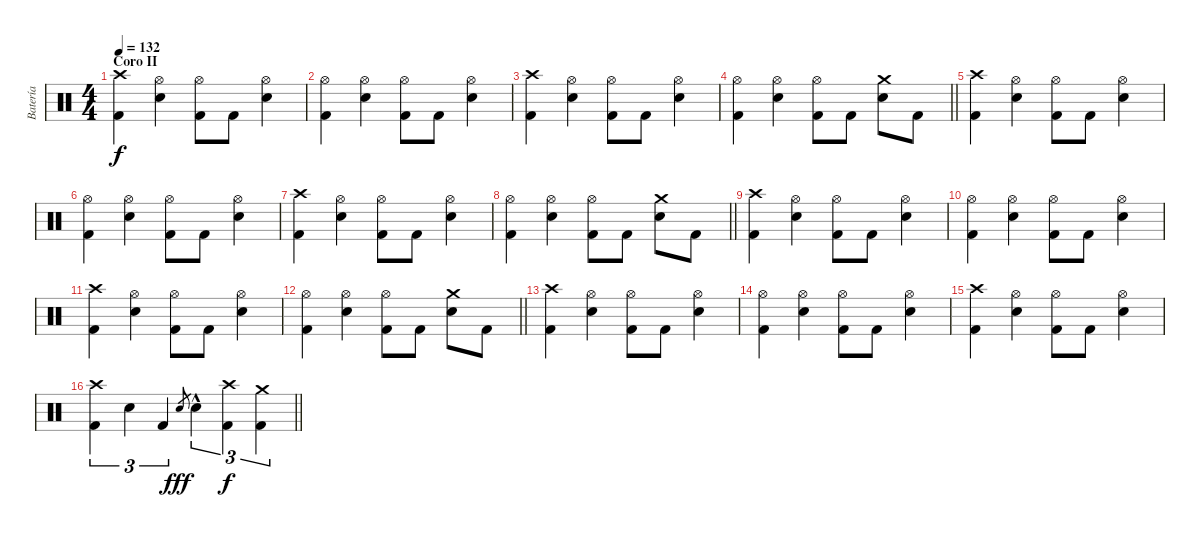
\track ("Batería" "Batería") {instrument percussion}
\staff {score}
\articulation defaults
\ts (4 4)
\section ("" "Coro II")
\tempo 132
\clef neutral
\ks c
("Crash high (hit)" "Kick (hit) 2").4{dy f} ("Hi-Hat (open)" "Electric Snare (hit)").4 ("Kick (hit) 2" "Hi-Hat (open)").8 "Kick (hit) 2".8 ("Hi-Hat (open)" "Electric Snare (hit)").4 |
("Hi-Hat (open)" "Kick (hit) 2").4 ("Hi-Hat (open)" "Electric Snare (hit)").4 ("Kick (hit) 2" "Hi-Hat (open)").8 "Kick (hit) 2".8 ("Hi-Hat (open)" "Electric Snare (hit)").4 |
("Crash high (hit)" "Kick (hit) 2").4 ("Hi-Hat (open)" "Electric Snare (hit)").4 ("Kick (hit) 2" "Hi-Hat (open)").8 "Kick (hit) 2".8 ("Hi-Hat (open)" "Electric Snare (hit)").4 |
\barLineRight lightlight
("Hi-Hat (open)" "Kick (hit) 2").4 ("Hi-Hat (open)" "Electric Snare (hit)").4 ("Kick (hit) 2" "Hi-Hat (open)").8 "Kick (hit) 2".8 ("Crash medium (hit)" "Electric Snare (hit)").8 "Kick (hit) 2".8 |
("Crash high (hit)" "Kick (hit) 2").4 ("Hi-Hat (open)" "Electric Snare (hit)").4 ("Kick (hit) 2" "Hi-Hat (open)").8 "Kick (hit) 2".8 ("Hi-Hat (open)" "Electric Snare (hit)").4 |
("Hi-Hat (open)" "Kick (hit) 2").4 ("Hi-Hat (open)" "Electric Snare (hit)").4 ("Kick (hit) 2" "Hi-Hat (open)").8 "Kick (hit) 2".8 ("Hi-Hat (open)" "Electric Snare (hit)").4 |
("Crash high (hit)" "Kick (hit) 2").4 ("Hi-Hat (open)" "Electric Snare (hit)").4 ("Kick (hit) 2" "Hi-Hat (open)").8 "Kick (hit) 2".8 ("Hi-Hat (open)" "Electric Snare (hit)").4 |
\barLineRight lightlight
("Hi-Hat (open)" "Kick (hit) 2").4 ("Hi-Hat (open)" "Electric Snare (hit)").4 ("Kick (hit) 2" "Hi-Hat (open)").8 "Kick (hit) 2".8 ("Crash medium (hit)" "Electric Snare (hit)").8 "Kick (hit) 2".8 |
("Crash high (hit)" "Kick (hit) 2").4 ("Hi-Hat (open)" "Electric Snare (hit)").4 ("Kick (hit) 2" "Hi-Hat (open)").8 "Kick (hit) 2".8 ("Hi-Hat (open)" "Electric Snare (hit)").4 |
("Hi-Hat (open)" "Kick (hit) 2").4 ("Hi-Hat (open)" "Electric Snare (hit)").4 ("Kick (hit) 2" "Hi-Hat (open)").8 "Kick (hit) 2".8 ("Hi-Hat (open)" "Electric Snare (hit)").4 |
("Crash high (hit)" "Kick (hit) 2").4 ("Hi-Hat (open)" "Electric Snare (hit)").4 ("Kick (hit) 2" "Hi-Hat (open)").8 "Kick (hit) 2".8 ("Hi-Hat (open)" "Electric Snare (hit)").4 |
\barLineRight lightlight
("Hi-Hat (open)" "Kick (hit) 2").4 ("Hi-Hat (open)" "Electric Snare (hit)").4 ("Kick (hit) 2" "Hi-Hat (open)").8 "Kick (hit) 2".8 ("Crash medium (hit)" "Electric Snare (hit)").8 "Kick (hit) 2".8 |
("Crash high (hit)" "Kick (hit) 2").4 ("Hi-Hat (open)" "Electric Snare (hit)").4 ("Kick (hit) 2" "Hi-Hat (open)").8 "Kick (hit) 2".8 ("Hi-Hat (open)" "Electric Snare (hit)").4 |
("Hi-Hat (open)" "Kick (hit) 2").4 ("Hi-Hat (open)" "Electric Snare (hit)").4 ("Kick (hit) 2" "Hi-Hat (open)").8 "Kick (hit) 2".8 ("Hi-Hat (open)" "Electric Snare (hit)").4 |
("Crash high (hit)" "Kick (hit) 2").4 ("Hi-Hat (open)" "Electric Snare (hit)").4 ("Kick (hit) 2" "Hi-Hat (open)").8 "Kick (hit) 2".8 ("Hi-Hat (open)" "Electric Snare (hit)").4 |
\barLineRight lightlight
("Crash high (hit)" "Kick (hit) 2").4{tu (3 2)} "Electric Snare (hit)".4{tu (3 2)} "Kick (hit) 2".4{tu (3 2)} "Electric Snare (hit)".8{gr dy fff} "Electric Snare (hit)"{hac}.4{tu (3 2)} ("Kick (hit) 2" "Crash high (hit)").4{tu (3 2) dy f} ("Kick (hit) 2" "Crash medium (hit)").4{tu (3 2)}
